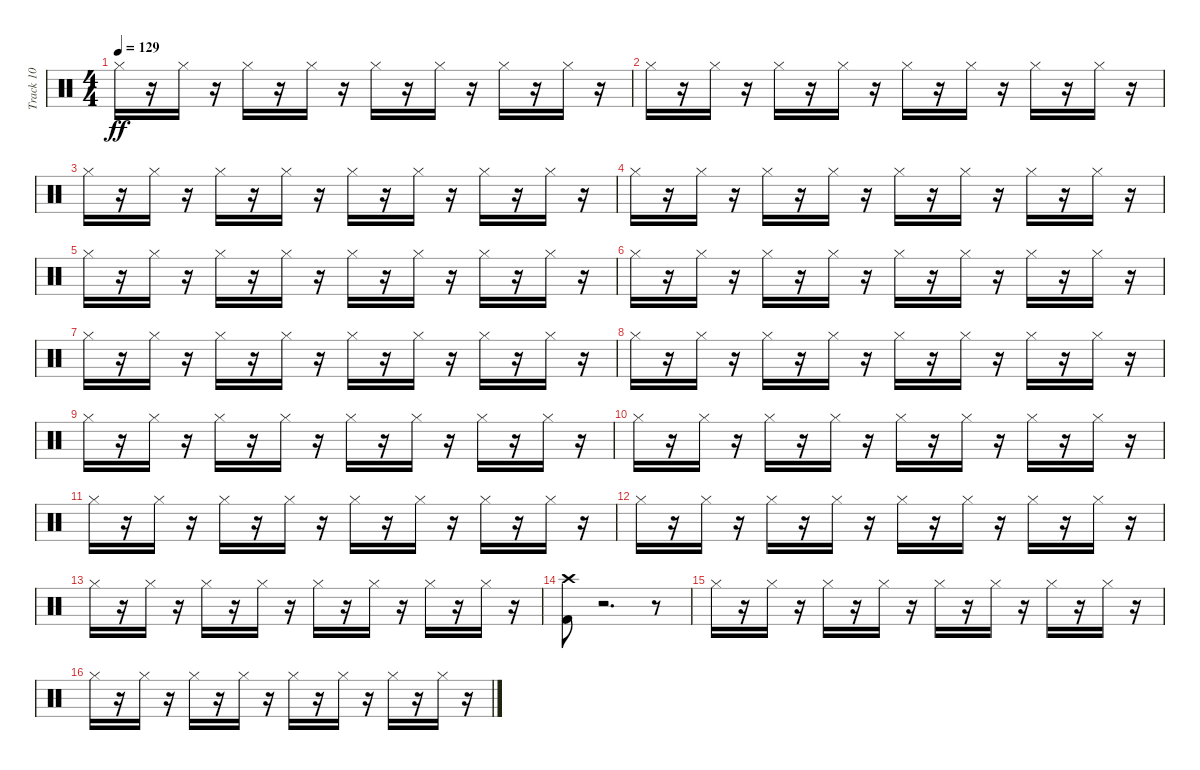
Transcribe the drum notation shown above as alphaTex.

\track ("Track 10" "Track 10") {instrument percussion}
\staff {score}
\articulation defaults
\ts (4 4)
\tempo 129
\clef neutral
\ks c "Hi-Hat (closed)".16{dy ff}
r.16 "Hi-Hat (closed)".16 r.16 "Hi-Hat (closed)".16 r.16 "Hi-Hat (closed)".16 r.16 "Hi-Hat (closed)".16 r.16 "Hi-Hat (closed)".16 r.16 "Hi-Hat (closed)".16 r.16 "Hi-Hat (closed)".16 r.16 |
"Hi-Hat (closed)".16 r.16 "Hi-Hat (closed)".16 r.16 "Hi-Hat (closed)".16 r.16 "Hi-Hat (closed)".16 r.16 "Hi-Hat (closed)".16 r.16 "Hi-Hat (closed)".16 r.16 "Hi-Hat (closed)".16 r.16 "Hi-Hat (closed)".16 r.16 |
"Hi-Hat (closed)".16 r.16 "Hi-Hat (closed)".16 r.16 "Hi-Hat (closed)".16 r.16 "Hi-Hat (closed)".16 r.16 "Hi-Hat (closed)".16 r.16 "Hi-Hat (closed)".16 r.16 "Hi-Hat (closed)".16 r.16 "Hi-Hat (closed)".16 r.16 |
"Hi-Hat (closed)".16 r.16 "Hi-Hat (closed)".16 r.16 "Hi-Hat (closed)".16 r.16 "Hi-Hat (closed)".16 r.16 "Hi-Hat (closed)".16 r.16 "Hi-Hat (closed)".16 r.16 "Hi-Hat (closed)".16 r.16 "Hi-Hat (closed)".16 r.16 |
"Hi-Hat (closed)".16 r.16 "Hi-Hat (closed)".16 r.16 "Hi-Hat (closed)".16 r.16 "Hi-Hat (closed)".16 r.16 "Hi-Hat (closed)".16 r.16 "Hi-Hat (closed)".16 r.16 "Hi-Hat (closed)".16 r.16 "Hi-Hat (closed)".16 r.16 |
"Hi-Hat (closed)".16 r.16 "Hi-Hat (closed)".16 r.16 "Hi-Hat (closed)".16 r.16 "Hi-Hat (closed)".16 r.16 "Hi-Hat (closed)".16 r.16 "Hi-Hat (closed)".16 r.16 "Hi-Hat (closed)".16 r.16 "Hi-Hat (closed)".16 r.16 |
"Hi-Hat (closed)".16 r.16 "Hi-Hat (closed)".16 r.16 "Hi-Hat (closed)".16 r.16 "Hi-Hat (closed)".16 r.16 "Hi-Hat (closed)".16 r.16 "Hi-Hat (closed)".16 r.16 "Hi-Hat (closed)".16 r.16 "Hi-Hat (closed)".16 r.16 |
"Hi-Hat (closed)".16 r.16 "Hi-Hat (closed)".16 r.16 "Hi-Hat (closed)".16 r.16 "Hi-Hat (closed)".16 r.16 "Hi-Hat (closed)".16 r.16 "Hi-Hat (closed)".16 r.16 "Hi-Hat (closed)".16 r.16 "Hi-Hat (closed)".16 r.16 |
"Hi-Hat (closed)".16 r.16 "Hi-Hat (closed)".16 r.16 "Hi-Hat (closed)".16 r.16 "Hi-Hat (closed)".16 r.16 "Hi-Hat (closed)".16 r.16 "Hi-Hat (closed)".16 r.16 "Hi-Hat (closed)".16 r.16 "Hi-Hat (closed)".16 r.16 |
"Hi-Hat (closed)".16 r.16 "Hi-Hat (closed)".16 r.16 "Hi-Hat (closed)".16 r.16 "Hi-Hat (closed)".16 r.16 "Hi-Hat (closed)".16 r.16 "Hi-Hat (closed)".16 r.16 "Hi-Hat (closed)".16 r.16 "Hi-Hat (closed)".16 r.16 |
"Hi-Hat (closed)".16 r.16 "Hi-Hat (closed)".16 r.16 "Hi-Hat (closed)".16 r.16 "Hi-Hat (closed)".16 r.16 "Hi-Hat (closed)".16 r.16 "Hi-Hat (closed)".16 r.16 "Hi-Hat (closed)".16 r.16 "Hi-Hat (closed)".16 r.16 |
"Hi-Hat (closed)".16 r.16 "Hi-Hat (closed)".16 r.16 "Hi-Hat (closed)".16 r.16 "Hi-Hat (closed)".16 r.16 "Hi-Hat (closed)".16 r.16 "Hi-Hat (closed)".16 r.16 "Hi-Hat (closed)".16 r.16 "Hi-Hat (closed)".16 r.16 |
"Hi-Hat (closed)".16 r.16 "Hi-Hat (closed)".16 r.16 "Hi-Hat (closed)".16 r.16 "Hi-Hat (closed)".16 r.16 "Hi-Hat (closed)".16 r.16 "Hi-Hat (closed)".16 r.16 "Hi-Hat (closed)".16 r.16 "Hi-Hat (closed)".16 r.16 |
("Kick (hit) 2" "Crash high (hit)").8 r.2{d} r.8 |
"Hi-Hat (closed)".16 r.16 "Hi-Hat (closed)".16 r.16 "Hi-Hat (closed)".16 r.16 "Hi-Hat (closed)".16 r.16 "Hi-Hat (closed)".16 r.16 "Hi-Hat (closed)".16 r.16 "Hi-Hat (closed)".16 r.16 "Hi-Hat (closed)".16 r.16 |
"Hi-Hat (closed)".16 r.16 "Hi-Hat (closed)".16 r.16 "Hi-Hat (closed)".16 r.16 "Hi-Hat (closed)".16 r.16 "Hi-Hat (closed)".16 r.16 "Hi-Hat (closed)".16 r.16 "Hi-Hat (closed)".16 r.16 "Hi-Hat (closed)".16 r.16
